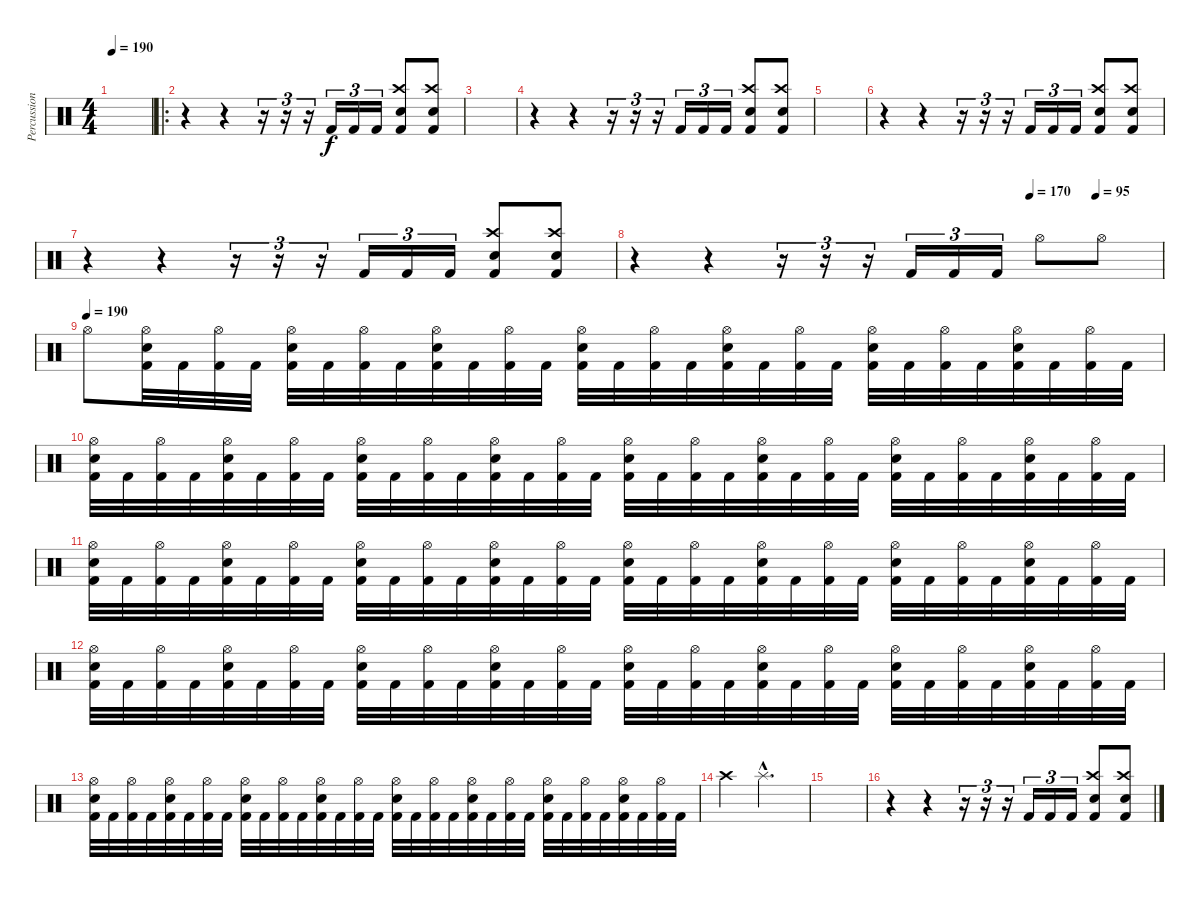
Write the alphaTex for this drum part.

\track ("Percussion" "Percussion") {instrument percussion}
\staff {score}
\articulation defaults
\ts (4 4)
\tempo 190
\clef neutral
\ks c
|
\ro
r.4 r.4 r.16{tu (3 2)} r.16{tu (3 2)} r.16{tu (3 2)} "Kick (hit) 2".16{tu (3 2)} "Kick (hit) 2".16{tu (3 2)} "Kick (hit) 2".16{tu (3 2)} ("Crash high (hit)" "Kick (hit) 2" "Snare (hit) 2").8 ("Crash high (hit)" "Kick (hit) 2" "Snare (hit) 2").8 |
|
r.4 r.4 r.16{tu (3 2)} r.16{tu (3 2)} r.16{tu (3 2)} "Kick (hit) 2".16{tu (3 2)} "Kick (hit) 2".16{tu (3 2)} "Kick (hit) 2".16{tu (3 2)} ("Crash high (hit)" "Kick (hit) 2" "Snare (hit) 2").8 ("Crash high (hit)" "Kick (hit) 2" "Snare (hit) 2").8 |
|
r.4 r.4 r.16{tu (3 2)} r.16{tu (3 2)} r.16{tu (3 2)} "Kick (hit) 2".16{tu (3 2)} "Kick (hit) 2".16{tu (3 2)} "Kick (hit) 2".16{tu (3 2)} ("Crash high (hit)" "Kick (hit) 2" "Snare (hit) 2").8 ("Crash high (hit)" "Kick (hit) 2" "Snare (hit) 2").8 |
r.4 r.4 r.16{tu (3 2)} r.16{tu (3 2)} r.16{tu (3 2)} "Kick (hit) 2".16{tu (3 2)} "Kick (hit) 2".16{tu (3 2)} "Kick (hit) 2".16{tu (3 2)} ("Crash high (hit)" "Kick (hit) 2" "Snare (hit) 2").8 ("Crash high (hit)" "Kick (hit) 2" "Snare (hit) 2").8 |
\tempo (170 0.75)
\tempo (95 0.875)
r.4 r.4 r.16{tu (3 2)} r.16{tu (3 2)} r.16{tu (3 2)} "Kick (hit) 2".16{tu (3 2)} "Kick (hit) 2".16{tu (3 2)} "Kick (hit) 2".16{tu (3 2)} "Hi-Hat (open)".8 "Hi-Hat (open)".8 |
\tempo (190)
"Hi-Hat (open)".8 ("Hi-Hat (open)" "Snare (hit) 2" "Kick (hit) 2").32 "Kick (hit) 2".32 ("Hi-Hat (open)" "Kick (hit) 2").32 "Kick (hit) 2".32 ("Hi-Hat (open)" "Snare (hit) 2" "Kick (hit) 2").32 "Kick (hit) 2".32 ("Hi-Hat (open)" "Kick (hit) 2").32 "Kick (hit) 2".32 ("Hi-Hat (open)" "Snare (hit) 2" "Kick (hit) 2").32 "Kick (hit) 2".32 ("Hi-Hat (open)" "Kick (hit) 2").32 "Kick (hit) 2".32 ("Hi-Hat (open)" "Snare (hit) 2" "Kick (hit) 2").32 "Kick (hit) 2".32 ("Hi-Hat (open)" "Kick (hit) 2").32 "Kick (hit) 2".32 ("Hi-Hat (open)" "Snare (hit) 2" "Kick (hit) 2").32 "Kick (hit) 2".32 ("Hi-Hat (open)" "Kick (hit) 2").32 "Kick (hit) 2".32 ("Hi-Hat (open)" "Snare (hit) 2" "Kick (hit) 2").32 "Kick (hit) 2".32 ("Hi-Hat (open)" "Kick (hit) 2").32 "Kick (hit) 2".32 ("Hi-Hat (open)" "Snare (hit) 2" "Kick (hit) 2").32 "Kick (hit) 2".32 ("Hi-Hat (open)" "Kick (hit) 2").32 "Kick (hit) 2".32 |
("Hi-Hat (open)" "Snare (hit) 2" "Kick (hit) 2").32 "Kick (hit) 2".32 ("Hi-Hat (open)" "Kick (hit) 2").32 "Kick (hit) 2".32 ("Hi-Hat (open)" "Snare (hit) 2" "Kick (hit) 2").32 "Kick (hit) 2".32 ("Hi-Hat (open)" "Kick (hit) 2").32 "Kick (hit) 2".32 ("Hi-Hat (open)" "Snare (hit) 2" "Kick (hit) 2").32 "Kick (hit) 2".32 ("Hi-Hat (open)" "Kick (hit) 2").32 "Kick (hit) 2".32 ("Hi-Hat (open)" "Snare (hit) 2" "Kick (hit) 2").32 "Kick (hit) 2".32 ("Hi-Hat (open)" "Kick (hit) 2").32 "Kick (hit) 2".32 ("Hi-Hat (open)" "Snare (hit) 2" "Kick (hit) 2").32 "Kick (hit) 2".32 ("Hi-Hat (open)" "Kick (hit) 2").32 "Kick (hit) 2".32 ("Hi-Hat (open)" "Snare (hit) 2" "Kick (hit) 2").32 "Kick (hit) 2".32 ("Hi-Hat (open)" "Kick (hit) 2").32 "Kick (hit) 2".32 ("Hi-Hat (open)" "Snare (hit) 2" "Kick (hit) 2").32 "Kick (hit) 2".32 ("Hi-Hat (open)" "Kick (hit) 2").32 "Kick (hit) 2".32 ("Hi-Hat (open)" "Snare (hit) 2" "Kick (hit) 2").32 "Kick (hit) 2".32 ("Hi-Hat (open)" "Kick (hit) 2").32 "Kick (hit) 2".32 |
("Hi-Hat (open)" "Snare (hit) 2" "Kick (hit) 2").32 "Kick (hit) 2".32 ("Hi-Hat (open)" "Kick (hit) 2").32 "Kick (hit) 2".32 ("Hi-Hat (open)" "Snare (hit) 2" "Kick (hit) 2").32 "Kick (hit) 2".32 ("Hi-Hat (open)" "Kick (hit) 2").32 "Kick (hit) 2".32 ("Hi-Hat (open)" "Snare (hit) 2" "Kick (hit) 2").32 "Kick (hit) 2".32 ("Hi-Hat (open)" "Kick (hit) 2").32 "Kick (hit) 2".32 ("Hi-Hat (open)" "Snare (hit) 2" "Kick (hit) 2").32 "Kick (hit) 2".32 ("Hi-Hat (open)" "Kick (hit) 2").32 "Kick (hit) 2".32 ("Hi-Hat (open)" "Snare (hit) 2" "Kick (hit) 2").32 "Kick (hit) 2".32 ("Hi-Hat (open)" "Kick (hit) 2").32 "Kick (hit) 2".32 ("Hi-Hat (open)" "Snare (hit) 2" "Kick (hit) 2").32 "Kick (hit) 2".32 ("Hi-Hat (open)" "Kick (hit) 2").32 "Kick (hit) 2".32 ("Hi-Hat (open)" "Snare (hit) 2" "Kick (hit) 2").32 "Kick (hit) 2".32 ("Hi-Hat (open)" "Kick (hit) 2").32 "Kick (hit) 2".32 ("Hi-Hat (open)" "Snare (hit) 2" "Kick (hit) 2").32 "Kick (hit) 2".32 ("Hi-Hat (open)" "Kick (hit) 2").32 "Kick (hit) 2".32 |
("Hi-Hat (open)" "Snare (hit) 2" "Kick (hit) 2").32 "Kick (hit) 2".32 ("Hi-Hat (open)" "Kick (hit) 2").32 "Kick (hit) 2".32 ("Hi-Hat (open)" "Snare (hit) 2" "Kick (hit) 2").32 "Kick (hit) 2".32 ("Hi-Hat (open)" "Kick (hit) 2").32 "Kick (hit) 2".32 ("Hi-Hat (open)" "Snare (hit) 2" "Kick (hit) 2").32 "Kick (hit) 2".32 ("Hi-Hat (open)" "Kick (hit) 2").32 "Kick (hit) 2".32 ("Hi-Hat (open)" "Snare (hit) 2" "Kick (hit) 2").32 "Kick (hit) 2".32 ("Hi-Hat (open)" "Kick (hit) 2").32 "Kick (hit) 2".32 ("Hi-Hat (open)" "Snare (hit) 2" "Kick (hit) 2").32 "Kick (hit) 2".32 ("Hi-Hat (open)" "Kick (hit) 2").32 "Kick (hit) 2".32 ("Hi-Hat (open)" "Snare (hit) 2" "Kick (hit) 2").32 "Kick (hit) 2".32 ("Hi-Hat (open)" "Kick (hit) 2").32 "Kick (hit) 2".32 ("Hi-Hat (open)" "Snare (hit) 2" "Kick (hit) 2").32 "Kick (hit) 2".32 ("Hi-Hat (open)" "Kick (hit) 2").32 "Kick (hit) 2".32 ("Hi-Hat (open)" "Snare (hit) 2" "Kick (hit) 2").32 "Kick (hit) 2".32 ("Hi-Hat (open)" "Kick (hit) 2").32 "Kick (hit) 2".32 |
("Hi-Hat (open)" "Snare (hit) 2" "Kick (hit) 2").32 "Kick (hit) 2".32 ("Hi-Hat (open)" "Kick (hit) 2").32 "Kick (hit) 2".32 ("Hi-Hat (open)" "Snare (hit) 2" "Kick (hit) 2").32 "Kick (hit) 2".32 ("Hi-Hat (open)" "Kick (hit) 2").32 "Kick (hit) 2".32 ("Hi-Hat (open)" "Snare (hit) 2" "Kick (hit) 2").32 "Kick (hit) 2".32 ("Hi-Hat (open)" "Kick (hit) 2").32 "Kick (hit) 2".32 ("Hi-Hat (open)" "Snare (hit) 2" "Kick (hit) 2").32 "Kick (hit) 2".32 ("Hi-Hat (open)" "Kick (hit) 2").32 "Kick (hit) 2".32 ("Hi-Hat (open)" "Snare (hit) 2" "Kick (hit) 2").32 "Kick (hit) 2".32 ("Hi-Hat (open)" "Kick (hit) 2").32 "Kick (hit) 2".32 ("Hi-Hat (open)" "Snare (hit) 2" "Kick (hit) 2").32 "Kick (hit) 2".32 ("Hi-Hat (open)" "Kick (hit) 2").32 "Kick (hit) 2".32 ("Hi-Hat (open)" "Snare (hit) 2" "Kick (hit) 2").32 "Kick (hit) 2".32 ("Hi-Hat (open)" "Kick (hit) 2").32 "Kick (hit) 2".32 ("Hi-Hat (open)" "Snare (hit) 2" "Kick (hit) 2").32 "Kick (hit) 2".32 ("Hi-Hat (open)" "Kick (hit) 2").32 "Kick (hit) 2".32 |
"Crash high (hit)".4 "Splash (hit)"{hac}.2{d} |
|
r.4 r.4 r.16{tu (3 2)} r.16{tu (3 2)} r.16{tu (3 2)} "Kick (hit) 2".16{tu (3 2)} "Kick (hit) 2".16{tu (3 2)} "Kick (hit) 2".16{tu (3 2)} ("Crash high (hit)" "Kick (hit) 2" "Snare (hit) 2").8 ("Crash high (hit)" "Kick (hit) 2" "Snare (hit) 2").8
